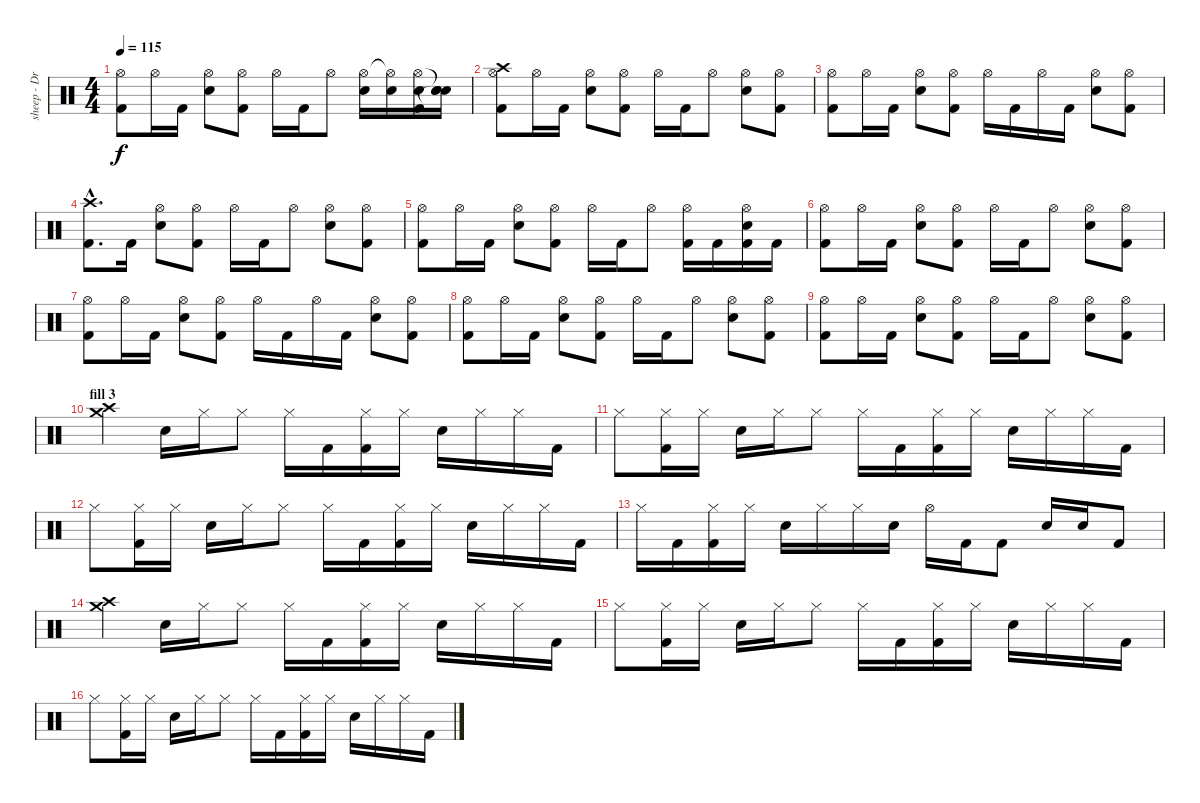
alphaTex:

\track ("sheep - Drum track (guide)" "sheep - Dr") {instrument percussion}
\staff {score}
\articulation defaults
\ts (4 4)
\tempo 115
\clef neutral
\ks c
("Hi-Hat (open)" "Kick (hit) 2").8{dy f} "Hi-Hat (open)".16 "Kick (hit) 2".16 ("Hi-Hat (open)" "Electric Snare (hit)").8 ("Hi-Hat (open)" "Kick (hit) 2").8 "Hi-Hat (open)".16 "Kick (hit) 2".16 "Hi-Hat (open)".8 ("Hi-Hat (open)" "Electric Snare (hit)").16 ("Hi-Hat (open)"{t} "Electric Snare (hit)").16 ("Hi-Hat (open)" "Electric Snare (hit)" "Kick (hit) 2").16 ("Snare (hit)"{t} "Electric Snare (hit)" "Snare (hit)"{t}).16 |
("Hi-Hat (open)" "Crash high (hit)" "Kick (hit) 2").8 "Hi-Hat (open)".16 "Kick (hit) 2".16 ("Hi-Hat (open)" "Electric Snare (hit)").8 ("Hi-Hat (open)" "Kick (hit) 2").8 "Hi-Hat (open)".16 "Kick (hit) 2".16 "Hi-Hat (open)".8 ("Hi-Hat (open)" "Electric Snare (hit)").8 ("Hi-Hat (open)" "Kick (hit) 2").8 |
("Hi-Hat (open)" "Kick (hit) 2").8 "Hi-Hat (open)".16 "Kick (hit) 2".16 ("Hi-Hat (open)" "Electric Snare (hit)").8 ("Hi-Hat (open)" "Kick (hit) 2").8 "Hi-Hat (open)".16 "Kick (hit) 2".16 "Hi-Hat (open)".16 "Kick (hit) 2".16 ("Hi-Hat (open)" "Electric Snare (hit)").8 ("Hi-Hat (open)" "Kick (hit) 2").8 |
("Crash high (hit)"{hac} "Kick (hit) 2"{hac}).8{d} "Kick (hit) 2".16 ("Hi-Hat (open)" "Electric Snare (hit)").8 ("Hi-Hat (open)" "Kick (hit) 2").8 "Hi-Hat (open)".16 "Kick (hit) 2".16 "Hi-Hat (open)".8 ("Hi-Hat (open)" "Electric Snare (hit)").8 ("Hi-Hat (open)" "Kick (hit) 2").8 |
("Hi-Hat (open)" "Kick (hit) 2").8 "Hi-Hat (open)".16 "Kick (hit) 2".16 ("Hi-Hat (open)" "Electric Snare (hit)").8 ("Hi-Hat (open)" "Kick (hit) 2").8 "Hi-Hat (open)".16 "Kick (hit) 2".16 "Hi-Hat (open)".8 ("Hi-Hat (open)" "Kick (hit) 2").16 "Kick (hit) 2".16 ("Hi-Hat (open)" "Electric Snare (hit)" "Kick (hit) 2").16 "Kick (hit) 2".16 |
("Hi-Hat (open)" "Kick (hit) 2").8 "Hi-Hat (open)".16 "Kick (hit) 2".16 ("Hi-Hat (open)" "Electric Snare (hit)").8 ("Hi-Hat (open)" "Kick (hit) 2").8 "Hi-Hat (open)".16 "Kick (hit) 2".16 "Hi-Hat (open)".8 ("Hi-Hat (open)" "Electric Snare (hit)").8 ("Hi-Hat (open)" "Kick (hit) 2").8 |
("Hi-Hat (open)" "Kick (hit) 2").8 "Hi-Hat (open)".16 "Kick (hit) 2".16 ("Hi-Hat (open)" "Electric Snare (hit)").8 ("Hi-Hat (open)" "Kick (hit) 2").8 "Hi-Hat (open)".16 "Kick (hit) 2".16 "Hi-Hat (open)".16 "Kick (hit) 2".16 ("Hi-Hat (open)" "Electric Snare (hit)").8 ("Hi-Hat (open)" "Kick (hit) 2").8 |
("Hi-Hat (open)" "Kick (hit) 2").8 "Hi-Hat (open)".16 "Kick (hit) 2".16 ("Hi-Hat (open)" "Electric Snare (hit)").8 ("Hi-Hat (open)" "Kick (hit) 2").8 "Hi-Hat (open)".16 "Kick (hit) 2".16 "Hi-Hat (open)".8 ("Hi-Hat (open)" "Electric Snare (hit)").8 ("Hi-Hat (open)" "Kick (hit) 2").8 |
("Hi-Hat (open)" "Kick (hit) 2").8 "Hi-Hat (open)".16 "Kick (hit) 2".16 ("Hi-Hat (open)" "Electric Snare (hit)").8 ("Hi-Hat (open)" "Kick (hit) 2").8 "Hi-Hat (open)".16 "Kick (hit) 2".16 "Hi-Hat (open)".8 ("Hi-Hat (open)" "Electric Snare (hit)").8 ("Hi-Hat (open)" "Kick (hit) 2").8 |
\section ("" "fill 3")
("Crash medium (hit)" "Crash high (hit)").4 "Electric Snare (hit)".16 "Hi-Hat (closed)".16 "Hi-Hat (closed)".8 "Hi-Hat (closed)".16 "Kick (hit) 2".16 ("Hi-Hat (closed)" "Kick (hit) 2").16 "Hi-Hat (closed)".16 "Electric Snare (hit)".16 "Hi-Hat (closed)".16 "Hi-Hat (closed)".16 "Kick (hit) 2".16 |
"Hi-Hat (closed)".8 ("Hi-Hat (closed)" "Kick (hit) 2").16 "Hi-Hat (closed)".16 "Electric Snare (hit)".16 "Hi-Hat (closed)".16 "Hi-Hat (closed)".8 "Hi-Hat (closed)".16 "Kick (hit) 2".16 ("Hi-Hat (closed)" "Kick (hit) 2").16 "Hi-Hat (closed)".16 "Electric Snare (hit)".16 "Hi-Hat (closed)".16 "Hi-Hat (closed)".16 "Kick (hit) 2".16 |
"Hi-Hat (closed)".8 ("Hi-Hat (closed)" "Kick (hit) 2").16 "Hi-Hat (closed)".16 "Electric Snare (hit)".16 "Hi-Hat (closed)".16 "Hi-Hat (closed)".8 "Hi-Hat (closed)".16 "Kick (hit) 2".16 ("Hi-Hat (closed)" "Kick (hit) 2").16 "Hi-Hat (closed)".16 "Electric Snare (hit)".16 "Hi-Hat (closed)".16 "Hi-Hat (closed)".16 "Kick (hit) 2".16 |
"Hi-Hat (closed)".16 "Kick (hit) 2".16 ("Hi-Hat (closed)" "Kick (hit) 2").16 "Hi-Hat (closed)".16 "Electric Snare (hit)".16 "Hi-Hat (closed)".16 "Hi-Hat (closed)".16 "Electric Snare (hit)".16 "Hi-Hat (open)".16 "Kick (hit) 2".16 "Kick (hit) 2".8 "Electric Snare (hit)".16 "Electric Snare (hit)".16 "Kick (hit) 2".8 |
("Crash medium (hit)" "Crash high (hit)").4 "Electric Snare (hit)".16 "Hi-Hat (closed)".16 "Hi-Hat (closed)".8 "Hi-Hat (closed)".16 "Kick (hit) 2".16 ("Hi-Hat (closed)" "Kick (hit) 2").16 "Hi-Hat (closed)".16 "Electric Snare (hit)".16 "Hi-Hat (closed)".16 "Hi-Hat (closed)".16 "Kick (hit) 2".16 |
"Hi-Hat (closed)".8 ("Hi-Hat (closed)" "Kick (hit) 2").16 "Hi-Hat (closed)".16 "Electric Snare (hit)".16 "Hi-Hat (closed)".16 "Hi-Hat (closed)".8 "Hi-Hat (closed)".16 "Kick (hit) 2".16 ("Hi-Hat (closed)" "Kick (hit) 2").16 "Hi-Hat (closed)".16 "Electric Snare (hit)".16 "Hi-Hat (closed)".16 "Hi-Hat (closed)".16 "Kick (hit) 2".16 |
"Hi-Hat (closed)".8 ("Hi-Hat (closed)" "Kick (hit) 2").16 "Hi-Hat (closed)".16 "Electric Snare (hit)".16 "Hi-Hat (closed)".16 "Hi-Hat (closed)".8 "Hi-Hat (closed)".16 "Kick (hit) 2".16 ("Hi-Hat (closed)" "Kick (hit) 2").16 "Hi-Hat (closed)".16 "Electric Snare (hit)".16 "Hi-Hat (closed)".16 "Hi-Hat (closed)".16 "Kick (hit) 2".16
